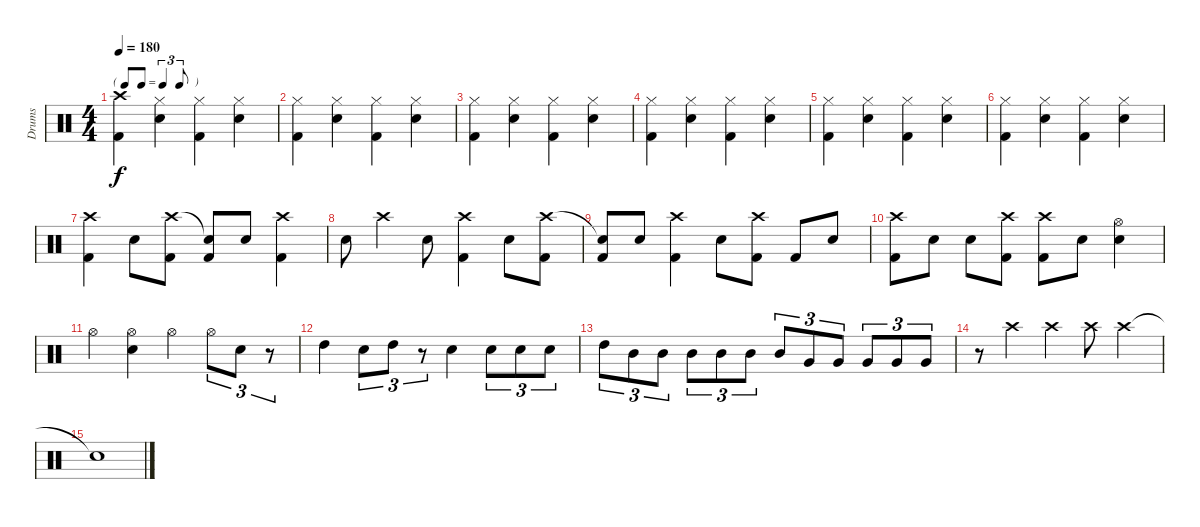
\track ("Drums" "Drums") {instrument percussion}
\staff {score}
\articulation defaults
\ts (4 4)
\tf triplet8th
\tempo 180
\clef neutral
\ks c
("Crash high (hit)" "Kick (hit) 2").4{dy f} ("Hi-Hat (closed)" "Snare (hit) 2").4 ("Hi-Hat (closed)" "Kick (hit) 2").4 ("Hi-Hat (closed)" "Snare (hit) 2").4 |
("Hi-Hat (closed)" "Kick (hit) 2").4 ("Hi-Hat (closed)" "Snare (hit) 2").4 ("Hi-Hat (closed)" "Kick (hit) 2").4 ("Hi-Hat (closed)" "Snare (hit) 2").4 |
("Hi-Hat (closed)" "Kick (hit) 2").4 ("Hi-Hat (closed)" "Snare (hit) 2").4 ("Hi-Hat (closed)" "Kick (hit) 2").4 ("Hi-Hat (closed)" "Snare (hit) 2").4 |
("Hi-Hat (closed)" "Kick (hit) 2").4 ("Hi-Hat (closed)" "Snare (hit) 2").4 ("Hi-Hat (closed)" "Kick (hit) 2").4 ("Hi-Hat (closed)" "Snare (hit) 2").4 |
("Hi-Hat (closed)" "Kick (hit) 2").4 ("Hi-Hat (closed)" "Snare (hit) 2").4 ("Hi-Hat (closed)" "Kick (hit) 2").4 ("Hi-Hat (closed)" "Snare (hit) 2").4 |
("Hi-Hat (closed)" "Kick (hit) 2").4 ("Hi-Hat (closed)" "Snare (hit) 2").4 ("Hi-Hat (closed)" "Kick (hit) 2").4 ("Hi-Hat (closed)" "Snare (hit) 2").4 |
("Crash high (hit)" "Kick (hit) 2").4 "Snare (hit) 2".8 ("Crash high (hit)" "Kick (hit) 2").8 ("Snare (hit)"{t} "Kick (hit) 2").8 "Snare (hit) 2".8 ("Crash high (hit)" "Kick (hit) 2").4 |
"Snare (hit) 2".8 "Crash high (hit)".4 "Snare (hit) 2".8 ("Crash high (hit)" "Kick (hit) 2").4 "Snare (hit) 2".8 ("Crash high (hit)" "Kick (hit) 2").8 |
("Snare (hit)"{t} "Kick (hit) 2").8 "Snare (hit) 2".8 ("Crash high (hit)" "Kick (hit) 2").4 "Snare (hit) 2".8 ("Crash high (hit)" "Kick (hit) 2").8 "Kick (hit) 2".8 "Snare (hit) 2".8 |
("Crash high (hit)" "Kick (hit) 2").8 "Snare (hit) 2".8 "Snare (hit) 2".8 ("Crash high (hit)" "Kick (hit) 2").8 ("Crash high (hit)" "Kick (hit) 2").8 "Snare (hit) 2".8 ("Hi-Hat (open)" "Snare (hit) 2").4 |
"Hi-Hat (open)".4 ("Hi-Hat (open)" "Snare (hit) 2").4 "Hi-Hat (open)".4 "Hi-Hat (open)".8{tu (3 2)} "Snare (hit) 2".8{tu (3 2)} r.8{tu (3 2)} |
"High Tom (hit)".4 "Snare (hit) 2".8{tu (3 2)} "High Tom (hit)".8{tu (3 2)} r.8{tu (3 2)} "Snare (hit) 2".4 "Snare (hit) 2".8{tu (3 2)} "Snare (hit) 2".8{tu (3 2)} "Snare (hit) 2".8{tu (3 2)} |
"High Tom (hit)".8{tu (3 2)} "Mid Tom (hit)".8{tu (3 2)} "Mid Tom (hit)".8{tu (3 2)} "Mid Tom (hit)".8{tu (3 2)} "Mid Tom (hit)".8{tu (3 2)} "Mid Tom (hit)".8{tu (3 2)} "Mid Tom (hit)".8{tu (3 2)} "Very Low Tom (hit)".8{tu (3 2)} "Very Low Tom (hit)".8{tu (3 2)} "Very Low Tom (hit)".8{tu (3 2)} "Very Low Tom (hit)".8{tu (3 2)} "Very Low Tom (hit)".8{tu (3 2)} |
r.8 "Crash high (hit)".4 "Crash high (hit)".4 "Crash high (hit)".8 "Crash high (hit)".4 |
"Snare (hit)"{t}.1
